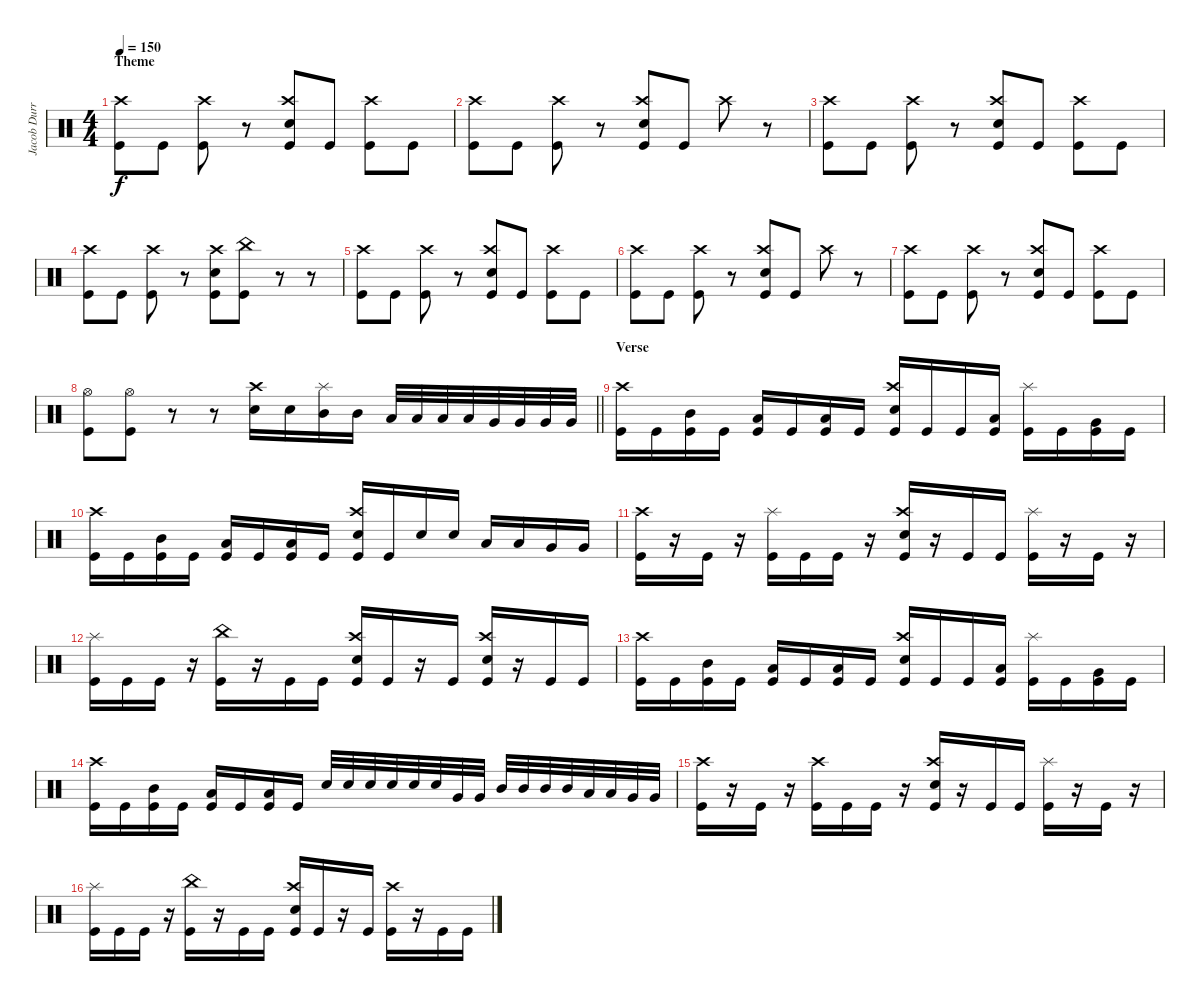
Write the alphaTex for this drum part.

\track ("Jacob Durret" "Jacob Durr") {instrument percussion}
\staff {score}
\articulation defaults
\ts (4 4)
\section ("" "Theme")
\tempo 150
\clef neutral
\ks c
("Kick (hit)" "Crash high (hit)").8{dy f} "Kick (hit)".8 ("Kick (hit)" "Crash high (hit)").8 r.8 ("Kick (hit)" "Crash high (hit)" "Snare (hit) 2").8 "Kick (hit)".8 ("Kick (hit)" "Crash high (hit)").8 "Kick (hit)".8 |
("Kick (hit)" "Crash high (hit)").8 "Kick (hit)".8 ("Kick (hit)" "Crash high (hit)").8 r.8 ("Kick (hit)" "Crash high (hit)" "Snare (hit) 2").8 "Kick (hit)".8 "Crash high (hit)".8 r.8 |
("Kick (hit)" "Crash high (hit)").8 "Kick (hit)".8 ("Kick (hit)" "Crash high (hit)").8 r.8 ("Kick (hit)" "Crash high (hit)" "Snare (hit) 2").8 "Kick (hit)".8 ("Kick (hit)" "Crash high (hit)").8 "Kick (hit)".8 |
("Kick (hit)" "Crash high (hit)").8 "Kick (hit)".8 ("Kick (hit)" "Crash high (hit)").8 r.8 ("Kick (hit)" "Crash high (hit)" "Snare (hit) 2").8 ("Kick (hit)" "China (hit)").8 r.8 r.8 |
("Kick (hit)" "Crash high (hit)").8 "Kick (hit)".8 ("Kick (hit)" "Crash high (hit)").8 r.8 ("Kick (hit)" "Crash high (hit)" "Snare (hit) 2").8 "Kick (hit)".8 ("Kick (hit)" "Crash high (hit)").8 "Kick (hit)".8 |
("Kick (hit)" "Crash high (hit)").8 "Kick (hit)".8 ("Kick (hit)" "Crash high (hit)").8 r.8 ("Kick (hit)" "Crash high (hit)" "Snare (hit) 2").8 "Kick (hit)".8 "Crash high (hit)".8 r.8 |
("Kick (hit)" "Crash high (hit)").8 "Kick (hit)".8 ("Kick (hit)" "Crash high (hit)").8 r.8 ("Kick (hit)" "Crash high (hit)" "Snare (hit) 2").8 "Kick (hit)".8 ("Kick (hit)" "Crash high (hit)").8 "Kick (hit)".8 |
\barLineRight lightlight
("Kick (hit)" "Hi-Hat (open)").8 ("Kick (hit)" "Hi-Hat (open)").8 r.8 r.8 ("Snare (hit) 2" "Crash high (hit)").16 "Snare (hit) 2".16 ("Mid Tom (hit)" "Splash (hit)").16 "Mid Tom (hit)".16 "Low Tom (hit)".32 "Low Tom (hit)".32 "Low Tom (hit)".32 "Low Tom (hit)".32 "Very Low Tom (hit)".32 "Very Low Tom (hit)".32 "Very Low Tom (hit)".32 "Very Low Tom (hit)".32 |
\section ("" "Verse")
("Kick (hit)" "Crash high (hit)").16 "Kick (hit)".16 ("Kick (hit)" "Mid Tom (hit)").16 "Kick (hit)".16 ("Kick (hit)" "Low Tom (hit)").16 "Kick (hit)".16 ("Kick (hit)" "Low Tom (hit)").16 "Kick (hit)".16 ("Kick (hit)" "Crash high (hit)" "Snare (hit) 2").16 "Kick (hit)".16 "Kick (hit)".16 ("Kick (hit)" "Low Tom (hit)").16 ("Kick (hit)" "Splash (hit)").16 "Kick (hit)".16 ("Kick (hit)" "Very Low Tom (hit)").16 "Kick (hit)".16 |
("Kick (hit)" "Crash high (hit)").16 "Kick (hit)".16 ("Kick (hit)" "Mid Tom (hit)").16 "Kick (hit)".16 ("Kick (hit)" "Low Tom (hit)").16 "Kick (hit)".16 ("Kick (hit)" "Low Tom (hit)").16 "Kick (hit)".16 ("Kick (hit)" "Crash high (hit)" "Snare (hit) 2").16 "Kick (hit)".16 "Snare (hit) 2".16 "Snare (hit) 2".16 "Low Tom (hit)".16 "Low Tom (hit)".16 "Very Low Tom (hit)".16 "Very Low Tom (hit)".16 |
("Kick (hit)" "Crash high (hit)").16 r.16 "Kick (hit)".16 r.16 ("Kick (hit)" "Splash (hit)").16 "Kick (hit)".16 "Kick (hit)".16 r.16 ("Kick (hit)" "Crash high (hit)" "Snare (hit) 2").16 r.16 "Kick (hit)".16 "Kick (hit)".16 ("Kick (hit)" "Splash (hit)").16 r.16 "Kick (hit)".16 r.16 |
("Kick (hit)" "Splash (hit)").16 "Kick (hit)".16 "Kick (hit)".16 r.16 ("Kick (hit)" "China (hit)").16 r.16 "Kick (hit)".16 "Kick (hit)".16 ("Kick (hit)" "Crash high (hit)" "Snare (hit) 2").16 "Kick (hit)".16 r.16 "Kick (hit)".16 ("Crash high (hit)" "Kick (hit)" "Snare (hit) 2").16 r.16 "Kick (hit)".16 "Kick (hit)".16 |
("Kick (hit)" "Crash high (hit)").16 "Kick (hit)".16 ("Kick (hit)" "Mid Tom (hit)").16 "Kick (hit)".16 ("Kick (hit)" "Low Tom (hit)").16 "Kick (hit)".16 ("Kick (hit)" "Low Tom (hit)").16 "Kick (hit)".16 ("Kick (hit)" "Crash high (hit)" "Snare (hit) 2").16 "Kick (hit)".16 "Kick (hit)".16 ("Kick (hit)" "Low Tom (hit)").16 ("Kick (hit)" "Splash (hit)").16 "Kick (hit)".16 ("Kick (hit)" "Very Low Tom (hit)").16 "Kick (hit)".16 |
("Kick (hit)" "Crash high (hit)").16 "Kick (hit)".16 ("Kick (hit)" "Mid Tom (hit)").16 "Kick (hit)".16 ("Kick (hit)" "Low Tom (hit)").16 "Kick (hit)".16 ("Kick (hit)" "Low Tom (hit)").16 "Kick (hit)".16 "Snare (hit) 2".32 "Snare (hit) 2".32 "Snare (hit) 2".32 "Snare (hit) 2".32 "Snare (hit) 2".32 "Snare (hit) 2".32 "Very Low Tom (hit)".32 "Very Low Tom (hit)".32 "Mid Tom (hit)".32 "Mid Tom (hit)".32 "Mid Tom (hit)".32 "Mid Tom (hit)".32 "Low Tom (hit)".32 "Low Tom (hit)".32 "Very Low Tom (hit)".32 "Very Low Tom (hit)".32 |
("Kick (hit)" "Crash high (hit)").16 r.16 "Kick (hit)".16 r.16 ("Kick (hit)" "Crash high (hit)").16 "Kick (hit)".16 "Kick (hit)".16 r.16 ("Kick (hit)" "Crash high (hit)" "Snare (hit) 2").16 r.16 "Kick (hit)".16 "Kick (hit)".16 ("Kick (hit)" "Splash (hit)").16 r.16 "Kick (hit)".16 r.16 |
("Kick (hit)" "Splash (hit)").16 "Kick (hit)".16 "Kick (hit)".16 r.16 ("Kick (hit)" "China (hit)").16 r.16 "Kick (hit)".16 "Kick (hit)".16 ("Kick (hit)" "Crash high (hit)" "Snare (hit) 2").16 "Kick (hit)".16 r.16 "Kick (hit)".16 ("Crash high (hit)" "Kick (hit)").16 r.16 "Kick (hit)".16 "Kick (hit)".16
